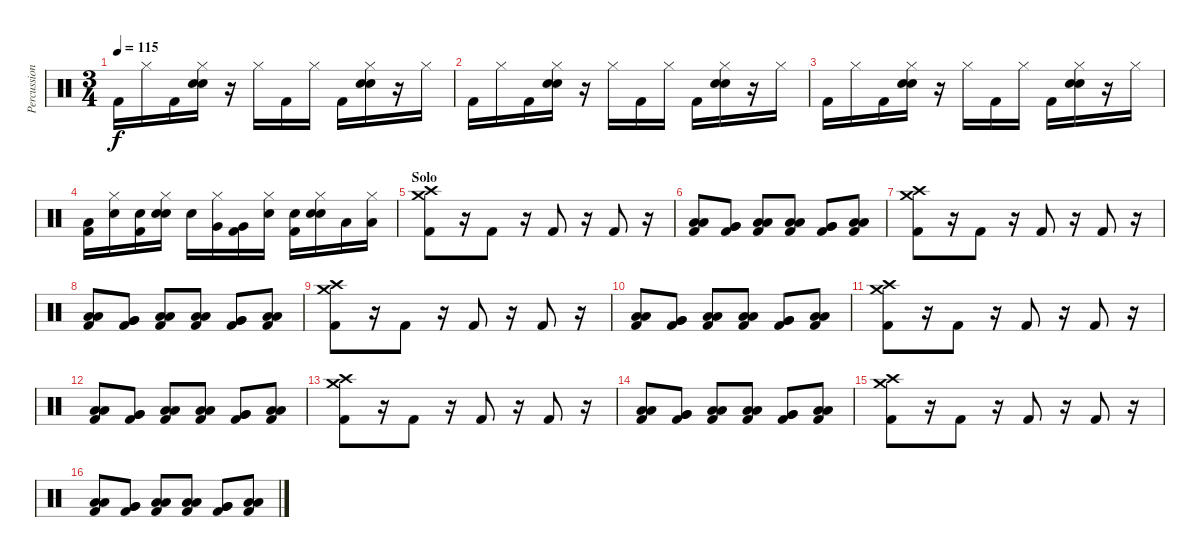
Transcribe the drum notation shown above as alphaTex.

\track ("Percussion" "Percussion") {instrument percussion}
\staff {score}
\articulation defaults
\ts (3 4)
\tempo 115
\clef neutral
\ks c "Kick (hit) 2".16{dy f} "Hi-Hat (closed)".16 "Kick (hit) 2".16
("Hi-Hat (closed)" "Snare (hit) 2" "Snare (hit) 2").16 r.16 "Hi-Hat (closed)".16 "Kick (hit) 2".16 "Hi-Hat (closed)".16 "Kick (hit) 2".16 ("Hi-Hat (closed)" "Snare (hit) 2" "Snare (hit) 2").16 r.16 "Hi-Hat (closed)".16 |
"Kick (hit) 2".16 "Hi-Hat (closed)".16 "Kick (hit) 2".16 ("Hi-Hat (closed)" "Snare (hit) 2" "Snare (hit) 2").16 r.16 "Hi-Hat (closed)".16 "Kick (hit) 2".16 "Hi-Hat (closed)".16 "Kick (hit) 2".16 ("Hi-Hat (closed)" "Snare (hit) 2" "Snare (hit) 2").16 r.16 "Hi-Hat (closed)".16 |
"Kick (hit) 2".16 "Hi-Hat (closed)".16 "Kick (hit) 2".16 ("Hi-Hat (closed)" "Snare (hit) 2" "Snare (hit) 2").16 r.16 "Hi-Hat (closed)".16 "Kick (hit) 2".16 "Hi-Hat (closed)".16 "Kick (hit) 2".16 ("Hi-Hat (closed)" "Snare (hit) 2" "Snare (hit) 2").16 r.16 "Hi-Hat (closed)".16 |
("Low Tom (hit)" "Kick (hit) 2").16 ("Hi-Hat (closed)" "Snare (hit) 2").16 ("Snare (hit) 2" "Kick (hit) 2").16 ("Hi-Hat (closed)" "Snare (hit) 2" "Snare (hit) 2").16 "Snare (hit) 2".16 ("Hi-Hat (closed)" "Very Low Tom (hit)").16 ("Very Low Tom (hit)" "Kick (hit) 2").16 ("Hi-Hat (closed)" "Snare (hit) 2").16 ("Snare (hit) 2" "Kick (hit) 2").16 ("Hi-Hat (closed)" "Snare (hit) 2" "Snare (hit) 2").16 "Low Tom (hit)".16 ("Hi-Hat (closed)" "Low Tom (hit)").16 |
\section ("" "Solo")
("Crash medium (hit)" "Crash high (hit)" "Kick (hit) 2").8 r.16 "Kick (hit) 2".8 r.16 "Kick (hit) 2".8 r.16 "Kick (hit) 2".8 r.16 |
("Low Tom (hit)" "Low Tom (hit)" "Kick (hit) 2").8 ("Very Low Tom (hit)" "Very Low Tom (hit)" "Kick (hit) 2").8 ("Low Floor Tom (hit)" "Low Floor Tom (hit)" "Kick (hit) 2").8 ("Low Tom (hit)" "Low Tom (hit)" "Kick (hit) 2").8 ("Very Low Tom (hit)" "Very Low Tom (hit)" "Kick (hit) 2").8 ("Low Floor Tom (hit)" "Low Floor Tom (hit)" "Kick (hit) 2").8 |
("Crash medium (hit)" "Crash high (hit)" "Kick (hit) 2").8 r.16 "Kick (hit) 2".8 r.16 "Kick (hit) 2".8 r.16 "Kick (hit) 2".8 r.16 |
("Low Tom (hit)" "Low Tom (hit)" "Kick (hit) 2").8 ("Very Low Tom (hit)" "Very Low Tom (hit)" "Kick (hit) 2").8 ("Low Floor Tom (hit)" "Low Floor Tom (hit)" "Kick (hit) 2").8 ("Low Tom (hit)" "Low Tom (hit)" "Kick (hit) 2").8 ("Very Low Tom (hit)" "Very Low Tom (hit)" "Kick (hit) 2").8 ("Low Floor Tom (hit)" "Low Floor Tom (hit)" "Kick (hit) 2").8 |
("Crash medium (hit)" "Crash high (hit)" "Kick (hit) 2").8 r.16 "Kick (hit) 2".8 r.16 "Kick (hit) 2".8 r.16 "Kick (hit) 2".8 r.16 |
("Low Tom (hit)" "Low Tom (hit)" "Kick (hit) 2").8 ("Very Low Tom (hit)" "Very Low Tom (hit)" "Kick (hit) 2").8 ("Low Floor Tom (hit)" "Low Floor Tom (hit)" "Kick (hit) 2").8 ("Low Tom (hit)" "Low Tom (hit)" "Kick (hit) 2").8 ("Very Low Tom (hit)" "Very Low Tom (hit)" "Kick (hit) 2").8 ("Low Floor Tom (hit)" "Low Floor Tom (hit)" "Kick (hit) 2").8 |
("Crash medium (hit)" "Crash high (hit)" "Kick (hit) 2").8 r.16 "Kick (hit) 2".8 r.16 "Kick (hit) 2".8 r.16 "Kick (hit) 2".8 r.16 |
("Low Tom (hit)" "Low Tom (hit)" "Kick (hit) 2").8 ("Very Low Tom (hit)" "Very Low Tom (hit)" "Kick (hit) 2").8 ("Low Floor Tom (hit)" "Low Floor Tom (hit)" "Kick (hit) 2").8 ("Low Tom (hit)" "Low Tom (hit)" "Kick (hit) 2").8 ("Very Low Tom (hit)" "Very Low Tom (hit)" "Kick (hit) 2").8 ("Low Floor Tom (hit)" "Low Floor Tom (hit)" "Kick (hit) 2").8 |
("Crash medium (hit)" "Crash high (hit)" "Kick (hit) 2").8 r.16 "Kick (hit) 2".8 r.16 "Kick (hit) 2".8 r.16 "Kick (hit) 2".8 r.16 |
("Low Tom (hit)" "Low Tom (hit)" "Kick (hit) 2").8 ("Very Low Tom (hit)" "Very Low Tom (hit)" "Kick (hit) 2").8 ("Low Floor Tom (hit)" "Low Floor Tom (hit)" "Kick (hit) 2").8 ("Low Tom (hit)" "Low Tom (hit)" "Kick (hit) 2").8 ("Very Low Tom (hit)" "Very Low Tom (hit)" "Kick (hit) 2").8 ("Low Floor Tom (hit)" "Low Floor Tom (hit)" "Kick (hit) 2").8 |
("Crash medium (hit)" "Crash high (hit)" "Kick (hit) 2").8 r.16 "Kick (hit) 2".8 r.16 "Kick (hit) 2".8 r.16 "Kick (hit) 2".8 r.16 |
("Low Tom (hit)" "Low Tom (hit)" "Kick (hit) 2").8 ("Very Low Tom (hit)" "Very Low Tom (hit)" "Kick (hit) 2").8 ("Low Floor Tom (hit)" "Low Floor Tom (hit)" "Kick (hit) 2").8 ("Low Tom (hit)" "Low Tom (hit)" "Kick (hit) 2").8 ("Very Low Tom (hit)" "Very Low Tom (hit)" "Kick (hit) 2").8 ("Low Floor Tom (hit)" "Low Floor Tom (hit)" "Kick (hit) 2").8
